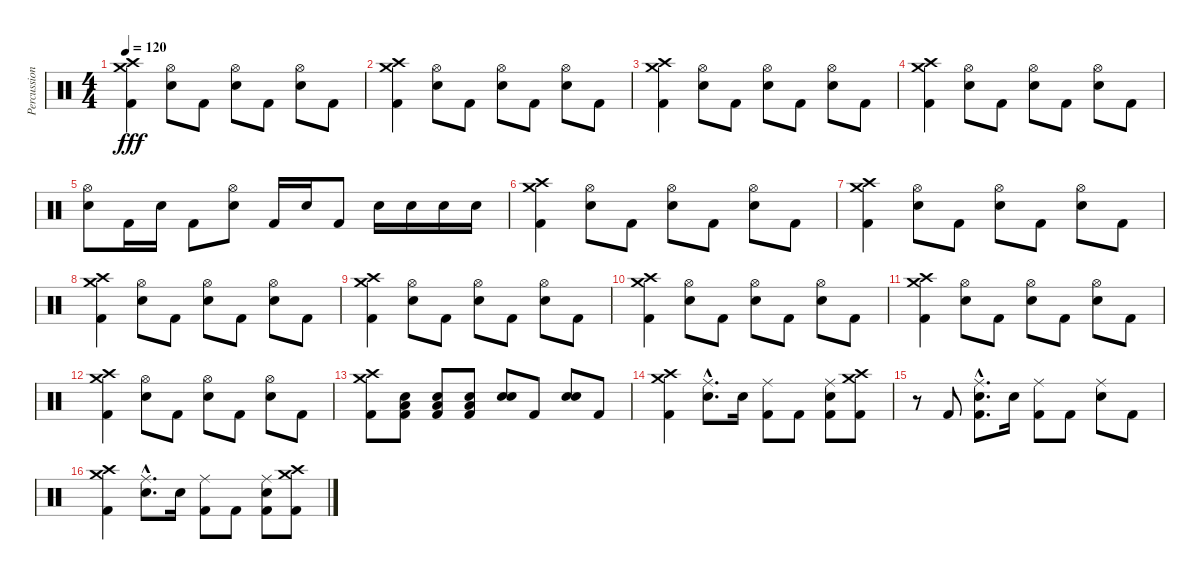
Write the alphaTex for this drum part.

\track ("Percussion" "Percussion") {instrument percussion}
\staff {score}
\articulation defaults
\ts (4 4)
\tempo 120
\clef neutral
\ks c
("Crash high (hit)" "Crash medium (hit)" "Kick (hit) 2").4{dy fff} ("Hi-Hat (open)" "Snare (hit) 2").8 "Kick (hit) 2".8 ("Hi-Hat (open)" "Snare (hit) 2").8 "Kick (hit) 2".8 ("Hi-Hat (open)" "Snare (hit) 2").8 "Kick (hit) 2".8 |
("Crash high (hit)" "Crash medium (hit)" "Kick (hit) 2").4 ("Hi-Hat (open)" "Snare (hit) 2").8 "Kick (hit) 2".8 ("Hi-Hat (open)" "Snare (hit) 2").8 "Kick (hit) 2".8 ("Hi-Hat (open)" "Snare (hit) 2").8 "Kick (hit) 2".8 |
("Crash high (hit)" "Crash medium (hit)" "Kick (hit) 2").4 ("Hi-Hat (open)" "Snare (hit) 2").8 "Kick (hit) 2".8 ("Hi-Hat (open)" "Snare (hit) 2").8 "Kick (hit) 2".8 ("Hi-Hat (open)" "Snare (hit) 2").8 "Kick (hit) 2".8 |
("Crash high (hit)" "Crash medium (hit)" "Kick (hit) 2").4 ("Hi-Hat (open)" "Snare (hit) 2").8 "Kick (hit) 2".8 ("Hi-Hat (open)" "Snare (hit) 2").8 "Kick (hit) 2".8 ("Hi-Hat (open)" "Snare (hit) 2").8 "Kick (hit) 2".8 |
("Hi-Hat (open)" "Snare (hit) 2").8 "Kick (hit) 2".16 "Snare (hit) 2".16 "Kick (hit) 2".8 ("Hi-Hat (open)" "Snare (hit) 2").8 "Kick (hit) 2".16 "Snare (hit) 2".16 "Kick (hit) 2".8 "Snare (hit) 2".16 "Snare (hit) 2".16 "Snare (hit) 2".16 "Snare (hit) 2".16 |
("Crash high (hit)" "Crash medium (hit)" "Kick (hit) 2").4 ("Hi-Hat (open)" "Snare (hit) 2").8 "Kick (hit) 2".8 ("Hi-Hat (open)" "Snare (hit) 2").8 "Kick (hit) 2".8 ("Hi-Hat (open)" "Snare (hit) 2").8 "Kick (hit) 2".8 |
("Crash high (hit)" "Crash medium (hit)" "Kick (hit) 2").4 ("Hi-Hat (open)" "Snare (hit) 2").8 "Kick (hit) 2".8 ("Hi-Hat (open)" "Snare (hit) 2").8 "Kick (hit) 2".8 ("Hi-Hat (open)" "Snare (hit) 2").8 "Kick (hit) 2".8 |
("Crash high (hit)" "Crash medium (hit)" "Kick (hit) 2").4 ("Hi-Hat (open)" "Snare (hit) 2").8 "Kick (hit) 2".8 ("Hi-Hat (open)" "Snare (hit) 2").8 "Kick (hit) 2".8 ("Hi-Hat (open)" "Snare (hit) 2").8 "Kick (hit) 2".8 |
("Crash high (hit)" "Crash medium (hit)" "Kick (hit) 2").4 ("Hi-Hat (open)" "Snare (hit) 2").8 "Kick (hit) 2".8 ("Hi-Hat (open)" "Snare (hit) 2").8 "Kick (hit) 2".8 ("Hi-Hat (open)" "Snare (hit) 2").8 "Kick (hit) 2".8 |
("Crash high (hit)" "Crash medium (hit)" "Kick (hit) 2").4 ("Hi-Hat (open)" "Snare (hit) 2").8 "Kick (hit) 2".8 ("Hi-Hat (open)" "Snare (hit) 2").8 "Kick (hit) 2".8 ("Hi-Hat (open)" "Snare (hit) 2").8 "Kick (hit) 2".8 |
("Crash high (hit)" "Crash medium (hit)" "Kick (hit) 2").4 ("Hi-Hat (open)" "Snare (hit) 2").8 "Kick (hit) 2".8 ("Hi-Hat (open)" "Snare (hit) 2").8 "Kick (hit) 2".8 ("Hi-Hat (open)" "Snare (hit) 2").8 "Kick (hit) 2".8 |
("Crash high (hit)" "Crash medium (hit)" "Kick (hit) 2").4 ("Hi-Hat (open)" "Snare (hit) 2").8 "Kick (hit) 2".8 ("Hi-Hat (open)" "Snare (hit) 2").8 "Kick (hit) 2".8 ("Hi-Hat (open)" "Snare (hit) 2").8 "Kick (hit) 2".8 |
("Crash high (hit)" "Crash medium (hit)" "Kick (hit) 2").8 ("Low Floor Tom (hit)" "Snare (hit) 2" "Kick (hit) 2").8 ("Low Floor Tom (hit)" "Snare (hit) 2" "Kick (hit) 2").8 ("Low Floor Tom (hit)" "Snare (hit) 2" "Kick (hit) 2").8 ("Snare (hit) 2" "Snare (hit) 2").8 "Kick (hit) 2".8 ("Snare (hit) 2" "Snare (hit) 2").8 "Kick (hit) 2".8 |
("Crash high (hit)" "Crash medium (hit)" "Kick (hit) 2").4 ("Ride (middle)"{hac} "Snare (hit) 2"{hac}).8{d} "Snare (hit) 2".16 ("Ride (middle)" "Kick (hit) 2").8 "Kick (hit) 2".8 ("Ride (middle)" "Snare (hit) 2" "Kick (hit) 2").8 ("Crash medium (hit)" "Crash high (hit)" "Kick (hit) 2").8 |
r.8 "Kick (hit) 2".8 ("Ride (middle)"{hac} "Snare (hit) 2"{hac} "Kick (hit) 2"{hac}).8{d} "Snare (hit) 2".16 ("Ride (middle)" "Kick (hit) 2").8 "Kick (hit) 2".8 ("Ride (middle)" "Snare (hit) 2").8 "Kick (hit) 2".8 |
("Crash high (hit)" "Crash medium (hit)" "Kick (hit) 2").4 ("Ride (middle)"{hac} "Snare (hit) 2"{hac}).8{d} "Snare (hit) 2".16 ("Ride (middle)" "Kick (hit) 2").8 "Kick (hit) 2".8 ("Ride (middle)" "Snare (hit) 2" "Kick (hit) 2").8 ("Crash medium (hit)" "Crash high (hit)" "Kick (hit) 2").8
